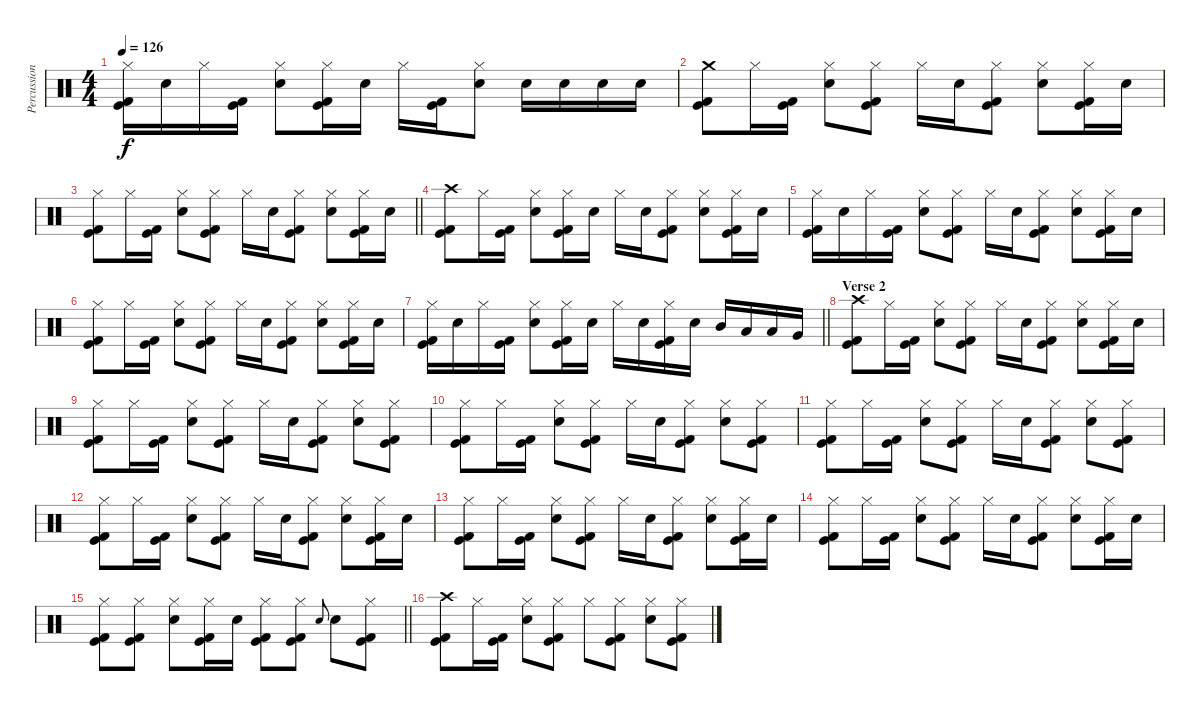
\track ("Percussion" "Percussion") {instrument percussion}
\staff {score}
\articulation defaults
\ts (4 4)
\tempo 126
\clef neutral
\ks c
("Hi-Hat (closed)" "Kick (hit)" "Kick (hit) 2").16{dy f} "Electric Snare (hit)".16 "Hi-Hat (closed)".16 ("Kick (hit)" "Kick (hit) 2").16 ("Hi-Hat (closed)" "Electric Snare (hit)").8 ("Hi-Hat (closed)" "Kick (hit)" "Kick (hit) 2").16 "Electric Snare (hit)".16 "Hi-Hat (closed)".16 ("Kick (hit)" "Kick (hit) 2").16 ("Hi-Hat (closed)" "Electric Snare (hit)").8 "Electric Snare (hit)".16 "Electric Snare (hit)".16 "Electric Snare (hit)".16 "Electric Snare (hit)".16 |
("Crash medium (hit)" "Kick (hit)" "Kick (hit) 2").8 "Hi-Hat (closed)".16 ("Kick (hit)" "Kick (hit) 2").16 ("Hi-Hat (closed)" "Electric Snare (hit)").8 ("Hi-Hat (closed)" "Kick (hit)" "Kick (hit) 2").8 "Hi-Hat (closed)".16 "Electric Snare (hit)".16 ("Hi-Hat (closed)" "Kick (hit)" "Kick (hit) 2").8 ("Hi-Hat (closed)" "Electric Snare (hit)").8 ("Hi-Hat (closed)" "Kick (hit)" "Kick (hit) 2").16 "Electric Snare (hit)".16 |
\barLineRight lightlight
("Hi-Hat (closed)" "Kick (hit)" "Kick (hit) 2").8 "Hi-Hat (closed)".16 ("Kick (hit)" "Kick (hit) 2").16 ("Hi-Hat (closed)" "Electric Snare (hit)").8 ("Hi-Hat (closed)" "Kick (hit)" "Kick (hit) 2").8 "Hi-Hat (closed)".16 "Electric Snare (hit)".16 ("Hi-Hat (closed)" "Kick (hit)" "Kick (hit) 2").8 ("Hi-Hat (closed)" "Electric Snare (hit)").8 ("Hi-Hat (closed)" "Kick (hit)" "Kick (hit) 2").16 "Electric Snare (hit)".16 |
\section ("" "")
("Crash high (hit)" "Kick (hit)" "Kick (hit) 2").8 "Hi-Hat (closed)".16 ("Kick (hit)" "Kick (hit) 2").16 ("Hi-Hat (closed)" "Electric Snare (hit)").8 ("Hi-Hat (closed)" "Kick (hit)" "Kick (hit) 2").16 "Electric Snare (hit)".16 "Hi-Hat (closed)".16 "Electric Snare (hit)".16 ("Hi-Hat (closed)" "Kick (hit)" "Kick (hit) 2").8 ("Hi-Hat (closed)" "Electric Snare (hit)").8 ("Hi-Hat (closed)" "Kick (hit)" "Kick (hit) 2").16 "Electric Snare (hit)".16 |
("Hi-Hat (closed)" "Kick (hit)" "Kick (hit) 2").16 "Electric Snare (hit)".16 "Hi-Hat (closed)".16 ("Kick (hit)" "Kick (hit) 2").16 ("Hi-Hat (closed)" "Electric Snare (hit)").8 ("Hi-Hat (closed)" "Kick (hit)" "Kick (hit) 2").8 "Hi-Hat (closed)".16 "Electric Snare (hit)".16 ("Hi-Hat (closed)" "Kick (hit)" "Kick (hit) 2").8 ("Hi-Hat (closed)" "Electric Snare (hit)").8 ("Hi-Hat (closed)" "Kick (hit)" "Kick (hit) 2").16 "Electric Snare (hit)".16 |
("Hi-Hat (closed)" "Kick (hit)" "Kick (hit) 2").8 "Hi-Hat (closed)".16 ("Kick (hit)" "Kick (hit) 2").16 ("Hi-Hat (closed)" "Electric Snare (hit)").8 ("Hi-Hat (closed)" "Kick (hit)" "Kick (hit) 2").8 "Hi-Hat (closed)".16 "Electric Snare (hit)".16 ("Hi-Hat (closed)" "Kick (hit)" "Kick (hit) 2").8 ("Hi-Hat (closed)" "Electric Snare (hit)").8 ("Hi-Hat (closed)" "Kick (hit)" "Kick (hit) 2").16 "Electric Snare (hit)".16 |
\barLineRight lightlight
("Hi-Hat (closed)" "Kick (hit)" "Kick (hit) 2").16 "Electric Snare (hit)".16 "Hi-Hat (closed)".16 ("Kick (hit)" "Kick (hit) 2").16 ("Hi-Hat (closed)" "Electric Snare (hit)").8 ("Hi-Hat (closed)" "Kick (hit)" "Kick (hit) 2").16 "Electric Snare (hit)".16 "Hi-Hat (closed)".16 "Electric Snare (hit)".16 ("Hi-Hat (closed)" "Kick (hit)" "Kick (hit) 2").16 "Electric Snare (hit)".16 "Mid Tom (hit)".16 "Low Tom (hit)".16 "Low Tom (hit)".16 "Very Low Tom (hit)".16 |
\section ("" "Verse 2")
("Crash high (hit)" "Kick (hit)" "Kick (hit) 2").8 "Hi-Hat (closed)".16 ("Kick (hit)" "Kick (hit) 2").16 ("Hi-Hat (closed)" "Electric Snare (hit)").8 ("Hi-Hat (closed)" "Kick (hit)" "Kick (hit) 2").8 "Hi-Hat (closed)".16 "Electric Snare (hit)".16 ("Hi-Hat (closed)" "Kick (hit)" "Kick (hit) 2").8 ("Hi-Hat (closed)" "Electric Snare (hit)").8 ("Hi-Hat (closed)" "Kick (hit)" "Kick (hit) 2").16 "Electric Snare (hit)".16 |
("Hi-Hat (closed)" "Kick (hit)" "Kick (hit) 2").8 "Hi-Hat (closed)".16 ("Kick (hit)" "Kick (hit) 2").16 ("Hi-Hat (closed)" "Electric Snare (hit)").8 ("Hi-Hat (closed)" "Kick (hit)" "Kick (hit) 2").8 "Hi-Hat (closed)".16 "Electric Snare (hit)".16 ("Hi-Hat (closed)" "Kick (hit)" "Kick (hit) 2").8 ("Hi-Hat (closed)" "Electric Snare (hit)").8 ("Hi-Hat (closed)" "Kick (hit)" "Kick (hit) 2").8 |
("Hi-Hat (closed)" "Kick (hit)" "Kick (hit) 2").8 "Hi-Hat (closed)".16 ("Kick (hit)" "Kick (hit) 2").16 ("Hi-Hat (closed)" "Electric Snare (hit)").8 ("Hi-Hat (closed)" "Kick (hit)" "Kick (hit) 2").8 "Hi-Hat (closed)".16 "Electric Snare (hit)".16 ("Hi-Hat (closed)" "Kick (hit)" "Kick (hit) 2").8 ("Hi-Hat (closed)" "Electric Snare (hit)").8 ("Hi-Hat (closed)" "Kick (hit)" "Kick (hit) 2").8 |
("Hi-Hat (closed)" "Kick (hit)" "Kick (hit) 2").8 "Hi-Hat (closed)".16 ("Kick (hit)" "Kick (hit) 2").16 ("Hi-Hat (closed)" "Electric Snare (hit)").8 ("Hi-Hat (closed)" "Kick (hit)" "Kick (hit) 2").8 "Hi-Hat (closed)".16 "Electric Snare (hit)".16 ("Hi-Hat (closed)" "Kick (hit)" "Kick (hit) 2").8 ("Hi-Hat (closed)" "Electric Snare (hit)").8 ("Hi-Hat (closed)" "Kick (hit)" "Kick (hit) 2").8 |
("Hi-Hat (closed)" "Kick (hit)" "Kick (hit) 2").8 "Hi-Hat (closed)".16 ("Kick (hit)" "Kick (hit) 2").16 ("Hi-Hat (closed)" "Electric Snare (hit)").8 ("Hi-Hat (closed)" "Kick (hit)" "Kick (hit) 2").8 "Hi-Hat (closed)".16 "Electric Snare (hit)".16 ("Hi-Hat (closed)" "Kick (hit)" "Kick (hit) 2").8 ("Hi-Hat (closed)" "Electric Snare (hit)").8 ("Hi-Hat (closed)" "Kick (hit)" "Kick (hit) 2").16 "Electric Snare (hit)".16 |
("Hi-Hat (closed)" "Kick (hit)" "Kick (hit) 2").8 "Hi-Hat (closed)".16 ("Kick (hit)" "Kick (hit) 2").16 ("Hi-Hat (closed)" "Electric Snare (hit)").8 ("Hi-Hat (closed)" "Kick (hit)" "Kick (hit) 2").8 "Hi-Hat (closed)".16 "Electric Snare (hit)".16 ("Hi-Hat (closed)" "Kick (hit)" "Kick (hit) 2").8 ("Hi-Hat (closed)" "Electric Snare (hit)").8 ("Hi-Hat (closed)" "Kick (hit)" "Kick (hit) 2").16 "Electric Snare (hit)".16 |
("Hi-Hat (closed)" "Kick (hit)" "Kick (hit) 2").8 "Hi-Hat (closed)".16 ("Kick (hit)" "Kick (hit) 2").16 ("Hi-Hat (closed)" "Electric Snare (hit)").8 ("Hi-Hat (closed)" "Kick (hit)" "Kick (hit) 2").8 "Hi-Hat (closed)".16 "Electric Snare (hit)".16 ("Hi-Hat (closed)" "Kick (hit)" "Kick (hit) 2").8 ("Hi-Hat (closed)" "Electric Snare (hit)").8 ("Hi-Hat (closed)" "Kick (hit)" "Kick (hit) 2").16 "Electric Snare (hit)".16 |
\barLineRight lightlight
("Hi-Hat (closed)" "Kick (hit)" "Kick (hit) 2").8 ("Hi-Hat (closed)" "Kick (hit)" "Kick (hit) 2").8 ("Hi-Hat (closed)" "Electric Snare (hit)").8 ("Hi-Hat (closed)" "Kick (hit)" "Kick (hit) 2").16 "Electric Snare (hit)".16 ("Hi-Hat (closed)" "Kick (hit)" "Kick (hit) 2").8 ("Hi-Hat (closed)" "Kick (hit)" "Kick (hit) 2").8 "Electric Snare (hit)".8{gr onbeat} "Electric Snare (hit)".8 ("Hi-Hat (closed)" "Kick (hit)" "Kick (hit) 2").8 |
\section ("" "")
("Crash high (hit)" "Kick (hit)" "Kick (hit) 2").8 "Hi-Hat (closed)".16 ("Kick (hit)" "Kick (hit) 2").16 ("Hi-Hat (closed)" "Electric Snare (hit)").8 ("Hi-Hat (closed)" "Kick (hit)" "Kick (hit) 2").8 "Hi-Hat (closed)".8 ("Hi-Hat (closed)" "Kick (hit)" "Kick (hit) 2").8 ("Hi-Hat (closed)" "Electric Snare (hit)").8 ("Hi-Hat (closed)" "Kick (hit)" "Kick (hit) 2").8
